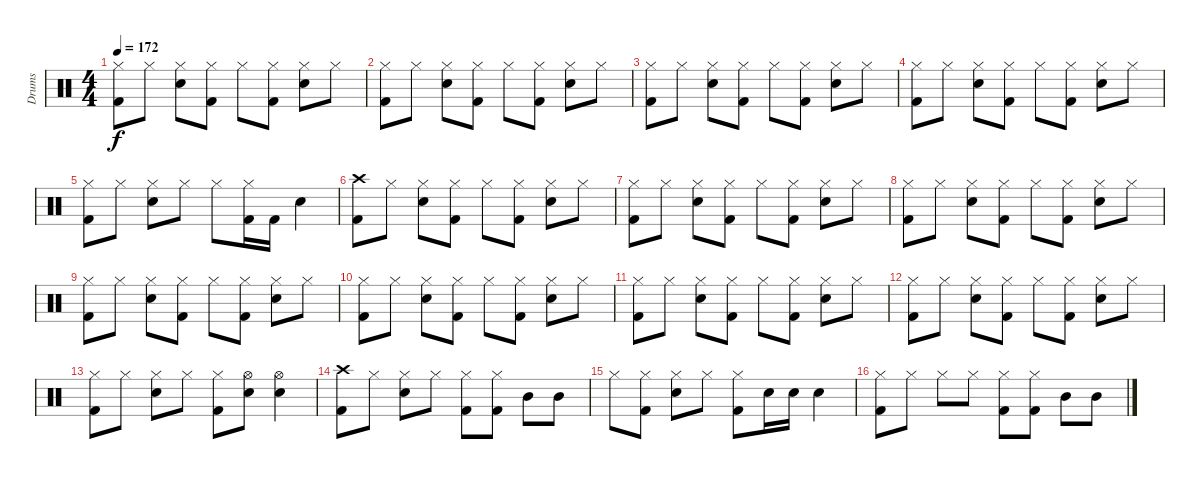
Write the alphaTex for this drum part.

\track ("Drums" "Drums") {instrument percussion}
\staff {score}
\articulation defaults
\ts (4 4)
\tempo 172
\clef neutral
\ks c
("Hi-Hat (closed)" "Kick (hit) 2").8{dy f} "Hi-Hat (closed)".8 ("Hi-Hat (closed)" "Electric Snare (hit)").8 ("Hi-Hat (closed)" "Kick (hit) 2").8 "Hi-Hat (closed)".8 ("Hi-Hat (closed)" "Kick (hit) 2").8 ("Hi-Hat (closed)" "Electric Snare (hit)").8 "Hi-Hat (closed)".8 |
("Hi-Hat (closed)" "Kick (hit) 2").8 "Hi-Hat (closed)".8 ("Hi-Hat (closed)" "Electric Snare (hit)").8 ("Hi-Hat (closed)" "Kick (hit) 2").8 "Hi-Hat (closed)".8 ("Hi-Hat (closed)" "Kick (hit) 2").8 ("Hi-Hat (closed)" "Electric Snare (hit)").8 "Hi-Hat (closed)".8 |
("Hi-Hat (closed)" "Kick (hit) 2").8 "Hi-Hat (closed)".8 ("Hi-Hat (closed)" "Electric Snare (hit)").8 ("Hi-Hat (closed)" "Kick (hit) 2").8 "Hi-Hat (closed)".8 ("Hi-Hat (closed)" "Kick (hit) 2").8 ("Hi-Hat (closed)" "Electric Snare (hit)").8 "Hi-Hat (closed)".8 |
("Hi-Hat (closed)" "Kick (hit) 2").8 "Hi-Hat (closed)".8 ("Hi-Hat (closed)" "Electric Snare (hit)").8 ("Hi-Hat (closed)" "Kick (hit) 2").8 "Hi-Hat (closed)".8 ("Hi-Hat (closed)" "Kick (hit) 2").8 ("Hi-Hat (closed)" "Electric Snare (hit)").8 "Hi-Hat (closed)".8 |
("Hi-Hat (closed)" "Kick (hit) 2").8 "Hi-Hat (closed)".8 ("Hi-Hat (closed)" "Electric Snare (hit)").8 "Hi-Hat (closed)".8 "Hi-Hat (closed)".8 ("Hi-Hat (closed)" "Kick (hit) 2").16 "Kick (hit) 2".16 "Electric Snare (hit)".4 |
("Crash high (hit)" "Kick (hit) 2").8 "Hi-Hat (closed)".8 ("Hi-Hat (closed)" "Electric Snare (hit)").8 ("Hi-Hat (closed)" "Kick (hit) 2").8 "Hi-Hat (closed)".8 ("Hi-Hat (closed)" "Kick (hit) 2").8 ("Hi-Hat (closed)" "Electric Snare (hit)").8 "Hi-Hat (closed)".8 |
("Hi-Hat (closed)" "Kick (hit) 2").8 "Hi-Hat (closed)".8 ("Hi-Hat (closed)" "Electric Snare (hit)").8 ("Hi-Hat (closed)" "Kick (hit) 2").8 "Hi-Hat (closed)".8 ("Hi-Hat (closed)" "Kick (hit) 2").8 ("Hi-Hat (closed)" "Electric Snare (hit)").8 "Hi-Hat (closed)".8 |
("Hi-Hat (closed)" "Kick (hit) 2").8 "Hi-Hat (closed)".8 ("Hi-Hat (closed)" "Electric Snare (hit)").8 ("Hi-Hat (closed)" "Kick (hit) 2").8 "Hi-Hat (closed)".8 ("Hi-Hat (closed)" "Kick (hit) 2").8 ("Hi-Hat (closed)" "Electric Snare (hit)").8 "Hi-Hat (closed)".8 |
("Hi-Hat (closed)" "Kick (hit) 2").8 "Hi-Hat (closed)".8 ("Hi-Hat (closed)" "Electric Snare (hit)").8 ("Hi-Hat (closed)" "Kick (hit) 2").8 "Hi-Hat (closed)".8 ("Hi-Hat (closed)" "Kick (hit) 2").8 ("Hi-Hat (closed)" "Electric Snare (hit)").8 "Hi-Hat (closed)".8 |
("Hi-Hat (closed)" "Kick (hit) 2").8 "Hi-Hat (closed)".8 ("Hi-Hat (closed)" "Electric Snare (hit)").8 ("Hi-Hat (closed)" "Kick (hit) 2").8 "Hi-Hat (closed)".8 ("Hi-Hat (closed)" "Kick (hit) 2").8 ("Hi-Hat (closed)" "Electric Snare (hit)").8 "Hi-Hat (closed)".8 |
("Hi-Hat (closed)" "Kick (hit) 2").8 "Hi-Hat (closed)".8 ("Hi-Hat (closed)" "Electric Snare (hit)").8 ("Hi-Hat (closed)" "Kick (hit) 2").8 "Hi-Hat (closed)".8 ("Hi-Hat (closed)" "Kick (hit) 2").8 ("Hi-Hat (closed)" "Electric Snare (hit)").8 "Hi-Hat (closed)".8 |
("Hi-Hat (closed)" "Kick (hit) 2").8 "Hi-Hat (closed)".8 ("Hi-Hat (closed)" "Electric Snare (hit)").8 ("Hi-Hat (closed)" "Kick (hit) 2").8 "Hi-Hat (closed)".8 ("Hi-Hat (closed)" "Kick (hit) 2").8 ("Hi-Hat (closed)" "Electric Snare (hit)").8 "Hi-Hat (closed)".8 |
("Hi-Hat (closed)" "Kick (hit) 2").8 "Hi-Hat (closed)".8 ("Hi-Hat (closed)" "Electric Snare (hit)").8 "Hi-Hat (closed)".8 ("Hi-Hat (closed)" "Kick (hit) 2").8 ("Hi-Hat (open)" "Electric Snare (hit)").8 ("Hi-Hat (open)" "Electric Snare (hit)").4 |
("Crash high (hit)" "Kick (hit) 2").8 "Hi-Hat (closed)".8 ("Hi-Hat (closed)" "Electric Snare (hit)").8 "Hi-Hat (closed)".8 ("Hi-Hat (closed)" "Kick (hit) 2").8 ("Hi-Hat (closed)" "Kick (hit) 2").8 "Mid Tom (hit)".8 "Mid Tom (hit)".8 |
"Hi-Hat (closed)".8 ("Hi-Hat (closed)" "Kick (hit) 2").8 ("Hi-Hat (closed)" "Electric Snare (hit)").8 "Hi-Hat (closed)".8 ("Hi-Hat (closed)" "Kick (hit) 2").8 "Electric Snare (hit)".16 "Electric Snare (hit)".16 "Electric Snare (hit)".4 |
("Hi-Hat (closed)" "Kick (hit) 2").8 "Hi-Hat (closed)".8 "Hi-Hat (closed)".8 "Hi-Hat (closed)".8 ("Hi-Hat (closed)" "Kick (hit) 2").8 ("Hi-Hat (closed)" "Kick (hit) 2").8 "Mid Tom (hit)".8 "Mid Tom (hit)".8
